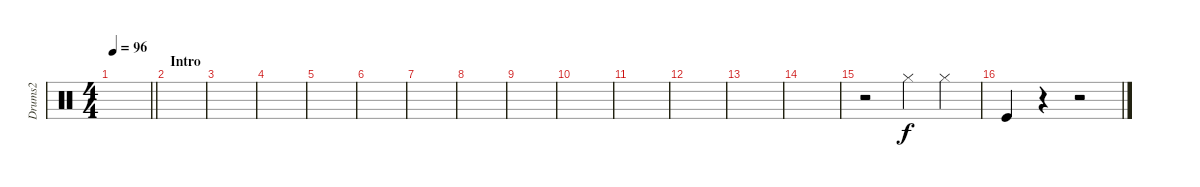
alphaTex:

\track ("Drums2" "Drums2") {instrument percussion}
\staff {score}
\articulation defaults
\ts (4 4)
\tempo 96
\clef neutral
\barLineRight lightlight
\ks c
|
\section ("" "Intro")
|
|
|
|
|
|
|
|
|
|
|
|
|
r.2 "Hi-Hat (closed)".4 "Hi-Hat (closed)".4 |
"Kick (hit)".4 r.4 r.2
